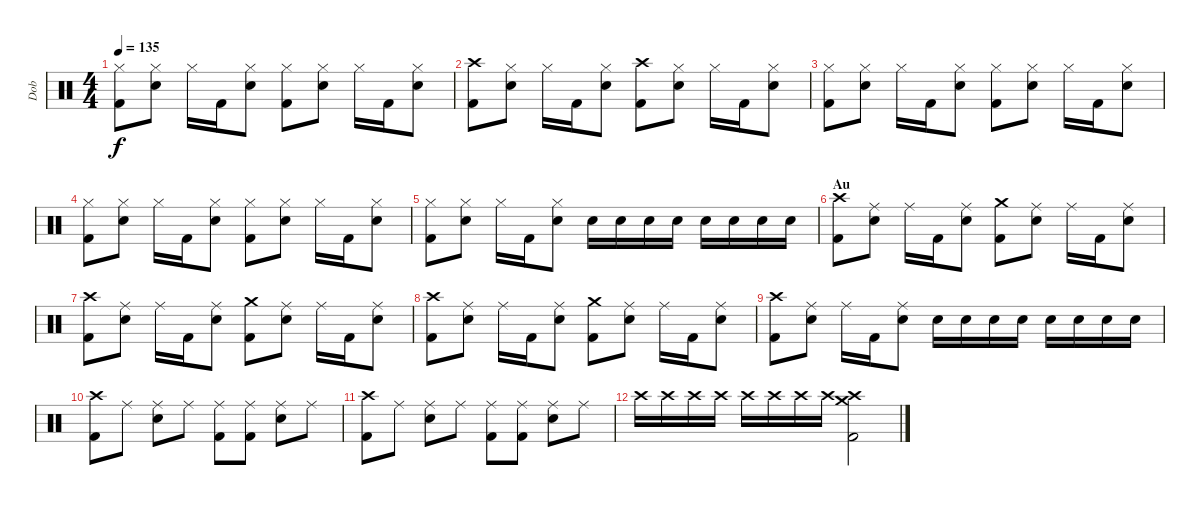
\track ("Dob" "Dob") {instrument percussion}
\staff {score}
\articulation defaults
\ts (4 4)
\tempo 135
\clef neutral
\ks c
("Hi-Hat (closed)" "Kick (hit) 2").8{dy f} ("Hi-Hat (closed)" "Snare (hit) 2").8 "Hi-Hat (closed)".16 "Kick (hit) 2".16 ("Hi-Hat (closed)" "Snare (hit) 2").8 ("Hi-Hat (closed)" "Kick (hit) 2").8 ("Hi-Hat (closed)" "Snare (hit) 2").8 "Hi-Hat (closed)".16 "Kick (hit) 2".16 ("Hi-Hat (closed)" "Snare (hit) 2").8 |
("Crash high (hit)" "Kick (hit) 2").8 ("Hi-Hat (closed)" "Snare (hit) 2").8 "Hi-Hat (closed)".16 "Kick (hit) 2".16 ("Hi-Hat (closed)" "Snare (hit) 2").8 ("Crash high (hit)" "Kick (hit) 2").8 ("Hi-Hat (closed)" "Snare (hit) 2").8 "Hi-Hat (closed)".16 "Kick (hit) 2".16 ("Hi-Hat (closed)" "Snare (hit) 2").8 |
("Hi-Hat (closed)" "Kick (hit) 2").8 ("Hi-Hat (closed)" "Snare (hit) 2").8 "Hi-Hat (closed)".16 "Kick (hit) 2".16 ("Hi-Hat (closed)" "Snare (hit) 2").8 ("Hi-Hat (closed)" "Kick (hit) 2").8 ("Hi-Hat (closed)" "Snare (hit) 2").8 "Hi-Hat (closed)".16 "Kick (hit) 2".16 ("Hi-Hat (closed)" "Snare (hit) 2").8 |
("Hi-Hat (closed)" "Kick (hit) 2").8 ("Hi-Hat (closed)" "Snare (hit) 2").8 "Hi-Hat (closed)".16 "Kick (hit) 2".16 ("Hi-Hat (closed)" "Snare (hit) 2").8 ("Hi-Hat (closed)" "Kick (hit) 2").8 ("Hi-Hat (closed)" "Snare (hit) 2").8 "Hi-Hat (closed)".16 "Kick (hit) 2".16 ("Hi-Hat (closed)" "Snare (hit) 2").8 |
("Hi-Hat (closed)" "Kick (hit) 2").8 ("Hi-Hat (closed)" "Snare (hit) 2").8 "Hi-Hat (closed)".16 "Kick (hit) 2".16 ("Hi-Hat (closed)" "Snare (hit) 2").8 "Snare (hit) 2".16 "Snare (hit) 2".16 "Snare (hit) 2".16 "Snare (hit) 2".16 "Snare (hit) 2".16 "Snare (hit) 2".16 "Snare (hit) 2".16 "Snare (hit) 2".16 |
\section ("" "Au")
("Crash high (hit)" "Kick (hit) 2").8 ("Ride (middle)" "Snare (hit) 2").8 "Ride (middle)".16 "Kick (hit) 2".16 ("Ride (middle)" "Snare (hit) 2").8 ("Crash medium (hit)" "Kick (hit) 2").8 ("Ride (middle)" "Snare (hit) 2").8 "Ride (middle)".16 "Kick (hit) 2".16 ("Ride (middle)" "Snare (hit) 2").8 |
("Crash high (hit)" "Kick (hit) 2").8 ("Ride (middle)" "Snare (hit) 2").8 "Ride (middle)".16 "Kick (hit) 2".16 ("Ride (middle)" "Snare (hit) 2").8 ("Crash medium (hit)" "Kick (hit) 2").8 ("Ride (middle)" "Snare (hit) 2").8 "Ride (middle)".16 "Kick (hit) 2".16 ("Ride (middle)" "Snare (hit) 2").8 |
("Crash high (hit)" "Kick (hit) 2").8 ("Ride (middle)" "Snare (hit) 2").8 "Ride (middle)".16 "Kick (hit) 2".16 ("Ride (middle)" "Snare (hit) 2").8 ("Crash medium (hit)" "Kick (hit) 2").8 ("Ride (middle)" "Snare (hit) 2").8 "Ride (middle)".16 "Kick (hit) 2".16 ("Ride (middle)" "Snare (hit) 2").8 |
("Crash high (hit)" "Kick (hit) 2").8 ("Ride (middle)" "Snare (hit) 2").8 "Ride (middle)".16 "Kick (hit) 2".16 ("Ride (middle)" "Snare (hit) 2").8 "Snare (hit) 2".16 "Snare (hit) 2".16 "Snare (hit) 2".16 "Snare (hit) 2".16 "Snare (hit) 2".16 "Snare (hit) 2".16 "Snare (hit) 2".16 "Snare (hit) 2".16 |
("Crash high (hit)" "Kick (hit) 2").8 "Ride (middle)".8 ("Ride (middle)" "Snare (hit) 2").8 "Ride (middle)".8 ("Ride (middle)" "Kick (hit) 2").8 ("Ride (middle)" "Kick (hit) 2").8 ("Ride (middle)" "Snare (hit) 2").8 "Ride (middle)".8 |
("Crash high (hit)" "Kick (hit) 2").8 "Ride (middle)".8 ("Ride (middle)" "Snare (hit) 2").8 "Ride (middle)".8 ("Ride (middle)" "Kick (hit) 2").8 ("Ride (middle)" "Kick (hit) 2").8 ("Ride (middle)" "Snare (hit) 2").8 "Ride (middle)".8 |
"Crash high (hit)".16 "Crash high (hit)".16 "Crash high (hit)".16 "Crash high (hit)".16 "Crash high (hit)".16 "Crash high (hit)".16 "Crash high (hit)".16 "Crash high (hit)".16 ("Crash high (hit)" "Crash medium (hit)" "Kick (hit) 2").2
